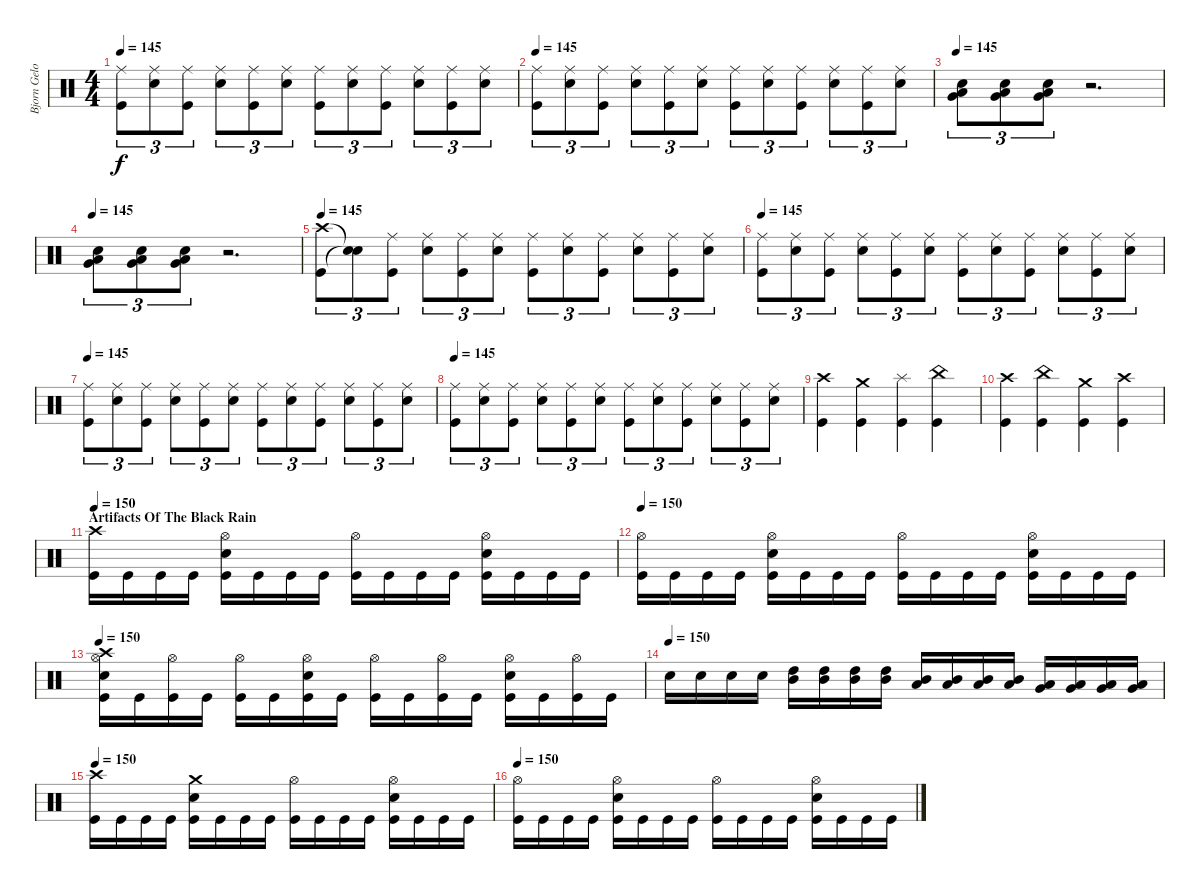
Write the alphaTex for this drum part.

\track ("Bjorn Gelotte-Drum" "Bjorn Gelo") {instrument percussion}
\staff {score}
\articulation defaults
\ts (4 4)
\tempo 145
\clef neutral
\ks c
("Ride (middle)" "Kick (hit)").8{tu (3 2) dy f} ("Ride (middle)" "Electric Snare (hit)").8{tu (3 2)} ("Ride (middle)" "Kick (hit)").8{tu (3 2)} ("Ride (middle)" "Electric Snare (hit)").8{tu (3 2)} ("Ride (middle)" "Kick (hit)").8{tu (3 2)} ("Ride (middle)" "Electric Snare (hit)").8{tu (3 2)} ("Ride (middle)" "Kick (hit)").8{tu (3 2)} ("Ride (middle)" "Electric Snare (hit)").8{tu (3 2)} ("Ride (middle)" "Kick (hit)").8{tu (3 2)} ("Ride (middle)" "Electric Snare (hit)").8{tu (3 2)} ("Ride (middle)" "Kick (hit)").8{tu (3 2)} ("Ride (middle)" "Electric Snare (hit)").8{tu (3 2)} |
\tempo 145
("Ride (middle)" "Kick (hit)").8{tu (3 2)} ("Ride (middle)" "Electric Snare (hit)").8{tu (3 2)} ("Ride (middle)" "Kick (hit)").8{tu (3 2)} ("Ride (middle)" "Electric Snare (hit)").8{tu (3 2)} ("Ride (middle)" "Kick (hit)").8{tu (3 2)} ("Ride (middle)" "Electric Snare (hit)").8{tu (3 2)} ("Ride (middle)" "Kick (hit)").8{tu (3 2)} ("Ride (middle)" "Electric Snare (hit)").8{tu (3 2)} ("Ride (middle)" "Kick (hit)").8{tu (3 2)} ("Ride (middle)" "Electric Snare (hit)").8{tu (3 2)} ("Ride (middle)" "Kick (hit)").8{tu (3 2)} ("Ride (middle)" "Electric Snare (hit)").8{tu (3 2)} |
\tempo 145
("Electric Snare (hit)" "Very Low Tom (hit)" "Low Floor Tom (hit)").8{tu (3 2)} ("Electric Snare (hit)" "Very Low Tom (hit)" "Low Floor Tom (hit)").8{tu (3 2)} ("Electric Snare (hit)" "Very Low Tom (hit)" "Low Floor Tom (hit)").8{tu (3 2)} r.2{d} |
\tempo 145
("Electric Snare (hit)" "Very Low Tom (hit)" "Low Floor Tom (hit)").8{tu (3 2)} ("Electric Snare (hit)" "Very Low Tom (hit)" "Low Floor Tom (hit)").8{tu (3 2)} ("Electric Snare (hit)" "Very Low Tom (hit)" "Low Floor Tom (hit)").8{tu (3 2)} r.2{d} |
\tempo 145
("Crash high (hit)" "Kick (hit)").8{tu (3 2)} ("Snare (hit)"{t} "Snare (hit)"{t}).8{tu (3 2)} ("Ride (middle)" "Kick (hit)").8{tu (3 2)} ("Ride (middle)" "Electric Snare (hit)").8{tu (3 2)} ("Ride (middle)" "Kick (hit)").8{tu (3 2)} ("Ride (middle)" "Electric Snare (hit)").8{tu (3 2)} ("Ride (middle)" "Kick (hit)").8{tu (3 2)} ("Ride (middle)" "Electric Snare (hit)").8{tu (3 2)} ("Ride (middle)" "Kick (hit)").8{tu (3 2)} ("Ride (middle)" "Electric Snare (hit)").8{tu (3 2)} ("Ride (middle)" "Kick (hit)").8{tu (3 2)} ("Ride (middle)" "Electric Snare (hit)").8{tu (3 2)} |
\tempo 145
("Ride (middle)" "Kick (hit)").8{tu (3 2)} ("Ride (middle)" "Electric Snare (hit)").8{tu (3 2)} ("Ride (middle)" "Kick (hit)").8{tu (3 2)} ("Ride (middle)" "Electric Snare (hit)").8{tu (3 2)} ("Ride (middle)" "Kick (hit)").8{tu (3 2)} ("Ride (middle)" "Electric Snare (hit)").8{tu (3 2)} ("Ride (middle)" "Kick (hit)").8{tu (3 2)} ("Ride (middle)" "Electric Snare (hit)").8{tu (3 2)} ("Ride (middle)" "Kick (hit)").8{tu (3 2)} ("Ride (middle)" "Electric Snare (hit)").8{tu (3 2)} ("Ride (middle)" "Kick (hit)").8{tu (3 2)} ("Ride (middle)" "Electric Snare (hit)").8{tu (3 2)} |
\tempo 145
("Ride (middle)" "Kick (hit)").8{tu (3 2)} ("Ride (middle)" "Electric Snare (hit)").8{tu (3 2)} ("Ride (middle)" "Kick (hit)").8{tu (3 2)} ("Ride (middle)" "Electric Snare (hit)").8{tu (3 2)} ("Ride (middle)" "Kick (hit)").8{tu (3 2)} ("Ride (middle)" "Electric Snare (hit)").8{tu (3 2)} ("Ride (middle)" "Kick (hit)").8{tu (3 2)} ("Ride (middle)" "Electric Snare (hit)").8{tu (3 2)} ("Ride (middle)" "Kick (hit)").8{tu (3 2)} ("Ride (middle)" "Electric Snare (hit)").8{tu (3 2)} ("Ride (middle)" "Kick (hit)").8{tu (3 2)} ("Ride (middle)" "Electric Snare (hit)").8{tu (3 2)} |
\tempo 145
("Ride (middle)" "Kick (hit)").8{tu (3 2)} ("Ride (middle)" "Electric Snare (hit)").8{tu (3 2)} ("Ride (middle)" "Kick (hit)").8{tu (3 2)} ("Ride (middle)" "Electric Snare (hit)").8{tu (3 2)} ("Ride (middle)" "Kick (hit)").8{tu (3 2)} ("Ride (middle)" "Electric Snare (hit)").8{tu (3 2)} ("Ride (middle)" "Kick (hit)").8{tu (3 2)} ("Ride (middle)" "Electric Snare (hit)").8{tu (3 2)} ("Ride (middle)" "Kick (hit)").8{tu (3 2)} ("Ride (middle)" "Electric Snare (hit)").8{tu (3 2)} ("Ride (middle)" "Kick (hit)").8{tu (3 2)} ("Ride (middle)" "Electric Snare (hit)").8{tu (3 2)} |
("Crash high (hit)" "Kick (hit)").4 ("Crash medium (hit)" "Kick (hit)").4 ("Splash (hit)" "Kick (hit)").4 ("China (hit)" "Kick (hit)").4 |
("Crash high (hit)" "Kick (hit)").4 ("China (hit)" "Kick (hit)").4 ("Crash medium (hit)" "Kick (hit)").4 ("Crash high (hit)" "Kick (hit)").4 |
\section ("" "Artifacts Of The Black Rain")
\tempo 150
("Kick (hit)" "Crash high (hit)").16 "Kick (hit)".16 "Kick (hit)".16 "Kick (hit)".16 ("Kick (hit)" "Electric Snare (hit)" "Hi-Hat (open)").16 "Kick (hit)".16 "Kick (hit)".16 "Kick (hit)".16 ("Kick (hit)" "Hi-Hat (open)").16 "Kick (hit)".16 "Kick (hit)".16 "Kick (hit)".16 ("Kick (hit)" "Electric Snare (hit)" "Hi-Hat (open)").16 "Kick (hit)".16 "Kick (hit)".16 "Kick (hit)".16 |
\tempo 150
("Kick (hit)" "Hi-Hat (open)").16 "Kick (hit)".16 "Kick (hit)".16 "Kick (hit)".16 ("Kick (hit)" "Electric Snare (hit)" "Hi-Hat (open)").16 "Kick (hit)".16 "Kick (hit)".16 "Kick (hit)".16 ("Kick (hit)" "Hi-Hat (open)").16 "Kick (hit)".16 "Kick (hit)".16 "Kick (hit)".16 ("Kick (hit)" "Electric Snare (hit)" "Hi-Hat (open)").16 "Kick (hit)".16 "Kick (hit)".16 "Kick (hit)".16 |
\tempo 150
("Kick (hit)" "Electric Snare (hit)" "Hi-Hat (open)" "Crash high (hit)").16 "Kick (hit)".16 ("Kick (hit)" "Hi-Hat (open)").16 "Kick (hit)".16 ("Kick (hit)" "Hi-Hat (open)").16 "Kick (hit)".16 ("Kick (hit)" "Electric Snare (hit)" "Hi-Hat (open)").16 "Kick (hit)".16 ("Kick (hit)" "Hi-Hat (open)").16 "Kick (hit)".16 ("Kick (hit)" "Hi-Hat (open)").16 "Kick (hit)".16 ("Kick (hit)" "Electric Snare (hit)" "Hi-Hat (open)").16 "Kick (hit)".16 ("Kick (hit)" "Hi-Hat (open)").16 "Kick (hit)".16 |
\tempo (150)
"Electric Snare (hit)".16 "Electric Snare (hit)".16 "Electric Snare (hit)".16 "Electric Snare (hit)".16 ("High Tom (hit)" "Mid Tom (hit)").16 ("High Tom (hit)" "Mid Tom (hit)").16 ("High Tom (hit)" "Mid Tom (hit)").16 ("High Tom (hit)" "Mid Tom (hit)").16 ("Mid Tom (hit)" "Low Tom (hit)").16 ("Mid Tom (hit)" "Low Tom (hit)").16 ("Mid Tom (hit)" "Low Tom (hit)").16 ("Mid Tom (hit)" "Low Tom (hit)").16 ("Low Tom (hit)" "Very Low Tom (hit)").16 ("Low Tom (hit)" "Very Low Tom (hit)").16 ("Low Tom (hit)" "Very Low Tom (hit)").16 ("Low Tom (hit)" "Very Low Tom (hit)").16 |
\tempo 150
("Kick (hit)" "Crash high (hit)").16 "Kick (hit)".16 "Kick (hit)".16 "Kick (hit)".16 ("Kick (hit)" "Electric Snare (hit)" "Crash medium (hit)").16 "Kick (hit)".16 "Kick (hit)".16 "Kick (hit)".16 ("Kick (hit)" "Hi-Hat (open)").16 "Kick (hit)".16 "Kick (hit)".16 "Kick (hit)".16 ("Kick (hit)" "Electric Snare (hit)" "Hi-Hat (open)").16 "Kick (hit)".16 "Kick (hit)".16 "Kick (hit)".16 |
\tempo 150
("Kick (hit)" "Hi-Hat (open)").16 "Kick (hit)".16 "Kick (hit)".16 "Kick (hit)".16 ("Kick (hit)" "Electric Snare (hit)" "Hi-Hat (open)").16 "Kick (hit)".16 "Kick (hit)".16 "Kick (hit)".16 ("Kick (hit)" "Hi-Hat (open)").16 "Kick (hit)".16 "Kick (hit)".16 "Kick (hit)".16 ("Kick (hit)" "Electric Snare (hit)" "Hi-Hat (open)").16 "Kick (hit)".16 "Kick (hit)".16 "Kick (hit)".16
